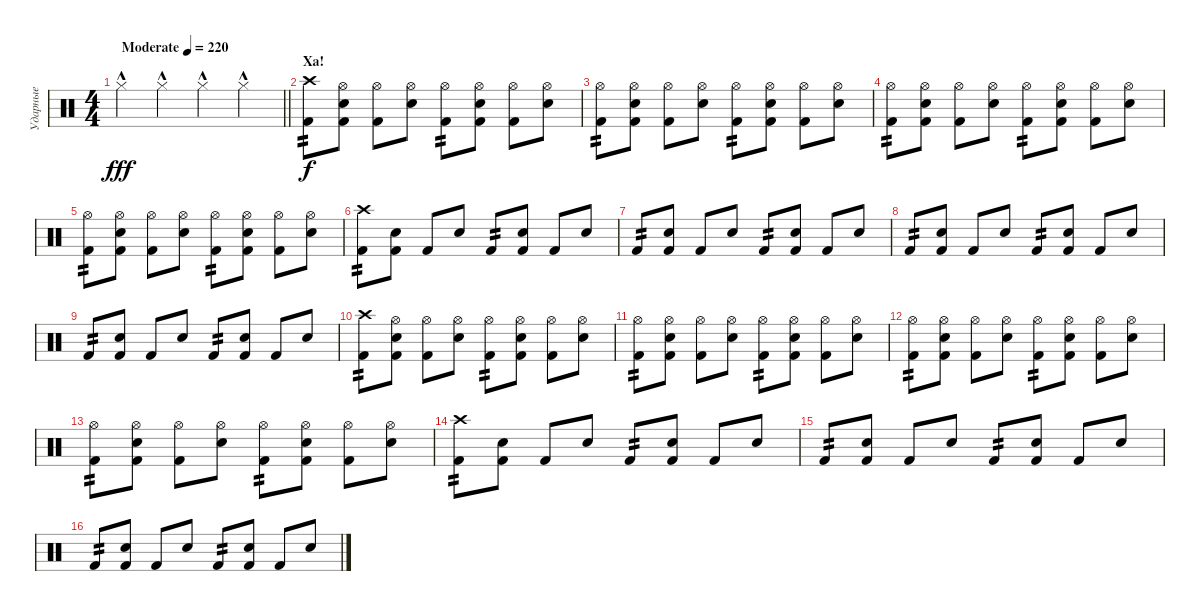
\track ("Ударные" "Ударные") {instrument percussion}
\staff {score}
\articulation defaults
\ts (4 4)
\tempo (220 "Moderate")
\clef neutral
\barLineRight lightlight
\ks c "Hi-Hat (closed)"{hac}.4{dy fff} "Hi-Hat (closed)"{hac}.4 "Hi-Hat (closed)"{hac}.4 "Hi-Hat (closed)"{hac}.4
|
\section ("" "Ха!")
("Crash high (hit)" "Kick (hit) 2").8{tp 2 dy f} ("Hi-Hat (open)" "Electric Snare (hit)" "Kick (hit) 2").8 ("Hi-Hat (open)" "Kick (hit) 2").8 ("Hi-Hat (open)" "Electric Snare (hit)").8 ("Hi-Hat (open)" "Kick (hit) 2").8{tp 2} ("Hi-Hat (open)" "Electric Snare (hit)" "Kick (hit) 2").8 ("Hi-Hat (open)" "Kick (hit) 2").8 ("Hi-Hat (open)" "Electric Snare (hit)").8 |
("Hi-Hat (open)" "Kick (hit) 2").8{tp 2} ("Hi-Hat (open)" "Electric Snare (hit)" "Kick (hit) 2").8 ("Hi-Hat (open)" "Kick (hit) 2").8 ("Hi-Hat (open)" "Electric Snare (hit)").8 ("Hi-Hat (open)" "Kick (hit) 2").8{tp 2} ("Hi-Hat (open)" "Electric Snare (hit)" "Kick (hit) 2").8 ("Hi-Hat (open)" "Kick (hit) 2").8 ("Hi-Hat (open)" "Electric Snare (hit)").8 |
("Hi-Hat (open)" "Kick (hit) 2").8{tp 2} ("Hi-Hat (open)" "Electric Snare (hit)" "Kick (hit) 2").8 ("Hi-Hat (open)" "Kick (hit) 2").8 ("Hi-Hat (open)" "Electric Snare (hit)").8 ("Hi-Hat (open)" "Kick (hit) 2").8{tp 2} ("Hi-Hat (open)" "Electric Snare (hit)" "Kick (hit) 2").8 ("Hi-Hat (open)" "Kick (hit) 2").8 ("Hi-Hat (open)" "Electric Snare (hit)").8 |
("Hi-Hat (open)" "Kick (hit) 2").8{tp 2} ("Hi-Hat (open)" "Electric Snare (hit)" "Kick (hit) 2").8 ("Hi-Hat (open)" "Kick (hit) 2").8 ("Hi-Hat (open)" "Electric Snare (hit)").8 ("Hi-Hat (open)" "Kick (hit) 2").8{tp 2} ("Hi-Hat (open)" "Electric Snare (hit)" "Kick (hit) 2").8 ("Hi-Hat (open)" "Kick (hit) 2").8 ("Hi-Hat (open)" "Electric Snare (hit)").8 |
("Crash high (hit)" "Kick (hit) 2").8{tp 2} ("Electric Snare (hit)" "Kick (hit) 2").8 "Kick (hit) 2".8 "Electric Snare (hit)".8 "Kick (hit) 2".8{tp 2} ("Electric Snare (hit)" "Kick (hit) 2").8 "Kick (hit) 2".8 "Electric Snare (hit)".8 |
"Kick (hit) 2".8{tp 2} ("Electric Snare (hit)" "Kick (hit) 2").8 "Kick (hit) 2".8 "Electric Snare (hit)".8 "Kick (hit) 2".8{tp 2} ("Electric Snare (hit)" "Kick (hit) 2").8 "Kick (hit) 2".8 "Electric Snare (hit)".8 |
"Kick (hit) 2".8{tp 2} ("Electric Snare (hit)" "Kick (hit) 2").8 "Kick (hit) 2".8 "Electric Snare (hit)".8 "Kick (hit) 2".8{tp 2} ("Electric Snare (hit)" "Kick (hit) 2").8 "Kick (hit) 2".8 "Electric Snare (hit)".8 |
"Kick (hit) 2".8{tp 2} ("Electric Snare (hit)" "Kick (hit) 2").8 "Kick (hit) 2".8 "Electric Snare (hit)".8 "Kick (hit) 2".8{tp 2} ("Electric Snare (hit)" "Kick (hit) 2").8 "Kick (hit) 2".8 "Electric Snare (hit)".8 |
("Crash high (hit)" "Kick (hit) 2").8{tp 2} ("Hi-Hat (open)" "Electric Snare (hit)" "Kick (hit) 2").8 ("Hi-Hat (open)" "Kick (hit) 2").8 ("Hi-Hat (open)" "Electric Snare (hit)").8 ("Hi-Hat (open)" "Kick (hit) 2").8{tp 2} ("Hi-Hat (open)" "Electric Snare (hit)" "Kick (hit) 2").8 ("Hi-Hat (open)" "Kick (hit) 2").8 ("Hi-Hat (open)" "Electric Snare (hit)").8 |
("Hi-Hat (open)" "Kick (hit) 2").8{tp 2} ("Hi-Hat (open)" "Electric Snare (hit)" "Kick (hit) 2").8 ("Hi-Hat (open)" "Kick (hit) 2").8 ("Hi-Hat (open)" "Electric Snare (hit)").8 ("Hi-Hat (open)" "Kick (hit) 2").8{tp 2} ("Hi-Hat (open)" "Electric Snare (hit)" "Kick (hit) 2").8 ("Hi-Hat (open)" "Kick (hit) 2").8 ("Hi-Hat (open)" "Electric Snare (hit)").8 |
("Hi-Hat (open)" "Kick (hit) 2").8{tp 2} ("Hi-Hat (open)" "Electric Snare (hit)" "Kick (hit) 2").8 ("Hi-Hat (open)" "Kick (hit) 2").8 ("Hi-Hat (open)" "Electric Snare (hit)").8 ("Hi-Hat (open)" "Kick (hit) 2").8{tp 2} ("Hi-Hat (open)" "Electric Snare (hit)" "Kick (hit) 2").8 ("Hi-Hat (open)" "Kick (hit) 2").8 ("Hi-Hat (open)" "Electric Snare (hit)").8 |
("Hi-Hat (open)" "Kick (hit) 2").8{tp 2} ("Hi-Hat (open)" "Electric Snare (hit)" "Kick (hit) 2").8 ("Hi-Hat (open)" "Kick (hit) 2").8 ("Hi-Hat (open)" "Electric Snare (hit)").8 ("Hi-Hat (open)" "Kick (hit) 2").8{tp 2} ("Hi-Hat (open)" "Electric Snare (hit)" "Kick (hit) 2").8 ("Hi-Hat (open)" "Kick (hit) 2").8 ("Hi-Hat (open)" "Electric Snare (hit)").8 |
("Crash high (hit)" "Kick (hit) 2").8{tp 2} ("Electric Snare (hit)" "Kick (hit) 2").8 "Kick (hit) 2".8 "Electric Snare (hit)".8 "Kick (hit) 2".8{tp 2} ("Electric Snare (hit)" "Kick (hit) 2").8 "Kick (hit) 2".8 "Electric Snare (hit)".8 |
"Kick (hit) 2".8{tp 2} ("Electric Snare (hit)" "Kick (hit) 2").8 "Kick (hit) 2".8 "Electric Snare (hit)".8 "Kick (hit) 2".8{tp 2} ("Electric Snare (hit)" "Kick (hit) 2").8 "Kick (hit) 2".8 "Electric Snare (hit)".8 |
"Kick (hit) 2".8{tp 2} ("Electric Snare (hit)" "Kick (hit) 2").8 "Kick (hit) 2".8 "Electric Snare (hit)".8 "Kick (hit) 2".8{tp 2} ("Electric Snare (hit)" "Kick (hit) 2").8 "Kick (hit) 2".8 "Electric Snare (hit)".8
